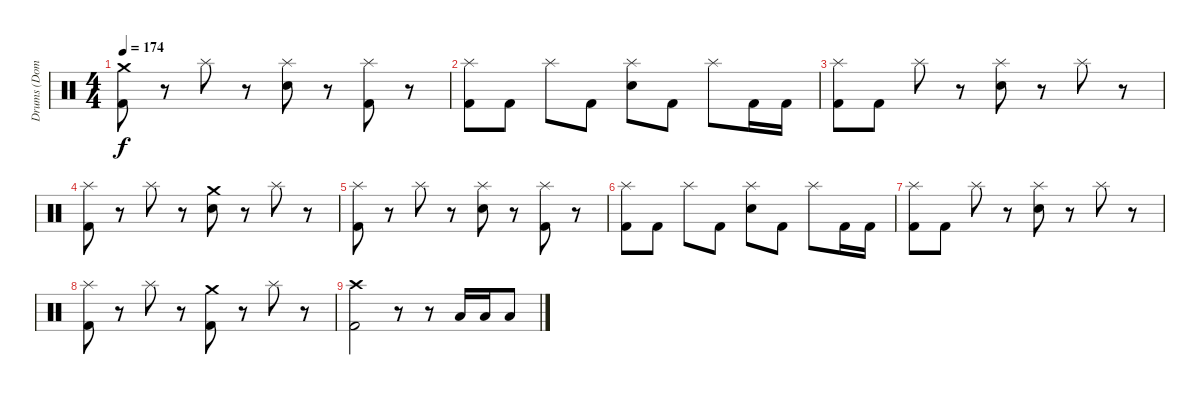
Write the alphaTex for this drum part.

\track ("Drums (Dominik)" "Drums (Dom") {instrument percussion}
\staff {score}
\articulation defaults
\ts (4 4)
\tempo 174
\clef neutral
\ks c
("Crash medium (hit)" "Kick (hit) 2").8{dy f} r.8 "Splash (hit)".8 r.8 ("Splash (hit)" "Electric Snare (hit)").8 r.8 ("Splash (hit)" "Kick (hit) 2").8 r.8 |
("Splash (hit)" "Kick (hit) 2").8 "Kick (hit) 2".8 "Splash (hit)".8 "Kick (hit) 2".8 ("Splash (hit)" "Electric Snare (hit)").8 "Kick (hit) 2".8 "Splash (hit)".8 "Kick (hit) 2".16 "Kick (hit) 2".16 |
("Splash (hit)" "Kick (hit) 2").8 "Kick (hit) 2".8 "Splash (hit)".8 r.8 ("Splash (hit)" "Electric Snare (hit)").8 r.8 "Splash (hit)".8 r.8 |
("Splash (hit)" "Kick (hit) 2").8 r.8 "Splash (hit)".8 r.8 ("Crash medium (hit)" "Electric Snare (hit)").8 r.8 "Splash (hit)".8 r.8 |
("Splash (hit)" "Kick (hit) 2").8 r.8 "Splash (hit)".8 r.8 ("Splash (hit)" "Electric Snare (hit)").8 r.8 ("Splash (hit)" "Kick (hit) 2").8 r.8 |
("Splash (hit)" "Kick (hit) 2").8 "Kick (hit) 2".8 "Splash (hit)".8 "Kick (hit) 2".8 ("Splash (hit)" "Electric Snare (hit)").8 "Kick (hit) 2".8 "Splash (hit)".8 "Kick (hit) 2".16 "Kick (hit) 2".16 |
("Splash (hit)" "Kick (hit) 2").8 "Kick (hit) 2".8 "Splash (hit)".8 r.8 ("Splash (hit)" "Electric Snare (hit)").8 r.8 "Splash (hit)".8 r.8 |
("Splash (hit)" "Kick (hit) 2").8 r.8 "Splash (hit)".8 r.8 ("Crash medium (hit)" "Kick (hit) 2").8 r.8 "Splash (hit)".8 r.8 |
("Crash high (hit)" "Kick (hit) 2").2 r.8 r.8 "Low Tom (hit)".16 "Low Tom (hit)".16 "Low Tom (hit)".8
